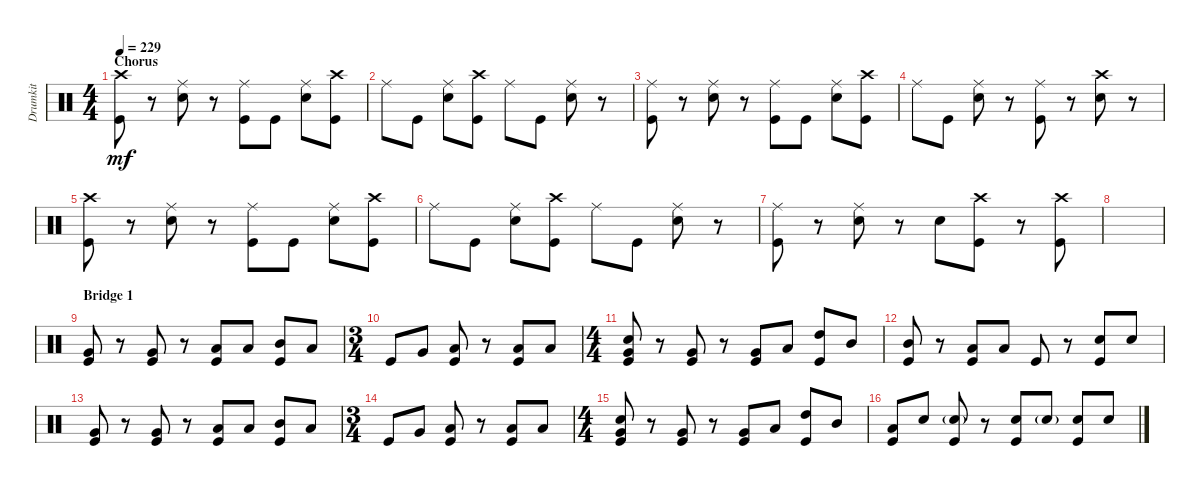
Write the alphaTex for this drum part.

\track ("Drumkit" "Drumkit") {instrument percussion}
\staff {score}
\articulation defaults
\ts (4 4)
\section ("" "Chorus")
\tempo 229
\clef neutral
\ks c
("Kick (hit)" "Crash high (hit)").8{dy mf} r.8 ("Snare (hit) 2" "Ride (middle)").8 r.8 ("Kick (hit)" "Ride (middle)").8 "Kick (hit)".8 ("Snare (hit) 2" "Ride (middle)").8 ("Kick (hit)" "Crash high (hit)").8 |
"Ride (middle)".8 "Kick (hit)".8 ("Snare (hit) 2" "Ride (middle)").8 ("Kick (hit)" "Crash high (hit)").8 "Ride (middle)".8 "Kick (hit)".8 ("Snare (hit) 2" "Ride (middle)").8 r.8 |
("Kick (hit)" "Ride (middle)").8 r.8 ("Snare (hit) 2" "Ride (middle)").8 r.8 ("Kick (hit)" "Ride (middle)").8 "Kick (hit)".8 ("Snare (hit) 2" "Ride (middle)").8 ("Kick (hit)" "Crash high (hit)").8 |
"Ride (middle)".8 "Kick (hit)".8 ("Snare (hit) 2" "Ride (middle)").8 r.8 ("Kick (hit)" "Ride (middle)").8 r.8 ("Snare (hit) 2" "Crash high (hit)").8 r.8 |
("Kick (hit)" "Crash high (hit)").8 r.8 ("Snare (hit) 2" "Ride (middle)").8 r.8 ("Kick (hit)" "Ride (middle)").8 "Kick (hit)".8 ("Snare (hit) 2" "Ride (middle)").8 ("Kick (hit)" "Crash high (hit)").8 |
"Ride (middle)".8 "Kick (hit)".8 ("Snare (hit) 2" "Ride (middle)").8 ("Kick (hit)" "Crash high (hit)").8 "Ride (middle)".8 "Kick (hit)".8 ("Snare (hit) 2" "Ride (middle)").8 r.8 |
("Kick (hit)" "Ride (middle)").8 r.8 ("Snare (hit) 2" "Ride (middle)").8 r.8 "Snare (hit) 2".8 ("Kick (hit)" "Crash high (hit)").8 r.8 ("Kick (hit)" "Crash high (hit)").8 |
|
\section ("" "Bridge 1")
("Kick (hit)" "Very Low Tom (hit)").8 r.8 ("Kick (hit)" "Very Low Tom (hit)").8 r.8 ("Kick (hit)" "Low Tom (hit)").8 "Low Tom (hit)".8 ("Kick (hit)" "Mid Tom (hit)").8 "Low Tom (hit)".8 |
\ts (3 4)
"Kick (hit)".8 "Very Low Tom (hit)".8 ("Kick (hit)" "Low Tom (hit)").8 r.8 ("Kick (hit)" "Low Tom (hit)").8 "Low Tom (hit)".8 |
\ts (4 4)
("Kick (hit)" "Snare (hit) 2" "Very Low Tom (hit)").8 r.8 ("Kick (hit)" "Very Low Tom (hit)").8 r.8 ("Kick (hit)" "Very Low Tom (hit)").8 "Low Tom (hit)".8 ("Kick (hit)" "High Tom (hit)").8 "Mid Tom (hit)".8 |
("Kick (hit)" "Mid Tom (hit)").8 r.8 ("Kick (hit)" "Low Tom (hit)").8 "Low Tom (hit)".8 "Kick (hit)".8 r.8 ("Kick (hit)" "Snare (hit) 2").8 "Snare (hit) 2".8 |
("Kick (hit)" "Very Low Tom (hit)").8 r.8 ("Kick (hit)" "Very Low Tom (hit)").8 r.8 ("Kick (hit)" "Low Tom (hit)").8 "Low Tom (hit)".8 ("Kick (hit)" "Mid Tom (hit)").8 "Low Tom (hit)".8 |
\ts (3 4)
"Kick (hit)".8 "Very Low Tom (hit)".8 ("Kick (hit)" "Low Tom (hit)").8 r.8 ("Kick (hit)" "Low Tom (hit)").8 "Low Tom (hit)".8 |
\ts (4 4)
("Kick (hit)" "Snare (hit) 2" "Very Low Tom (hit)").8 r.8 ("Kick (hit)" "Very Low Tom (hit)").8 r.8 ("Kick (hit)" "Very Low Tom (hit)").8 "Low Tom (hit)".8 ("Kick (hit)" "High Tom (hit)").8 "Mid Tom (hit)".8 |
("Kick (hit)" "Low Tom (hit)").8 "Snare (hit) 2".8 ("Kick (hit)" "Snare (hit) 2"{g}).8 r.8 ("Kick (hit)" "Snare (hit) 2").8 "Snare (hit) 2"{g}.8 ("Kick (hit)" "Snare (hit) 2").8 "Snare (hit) 2".8
